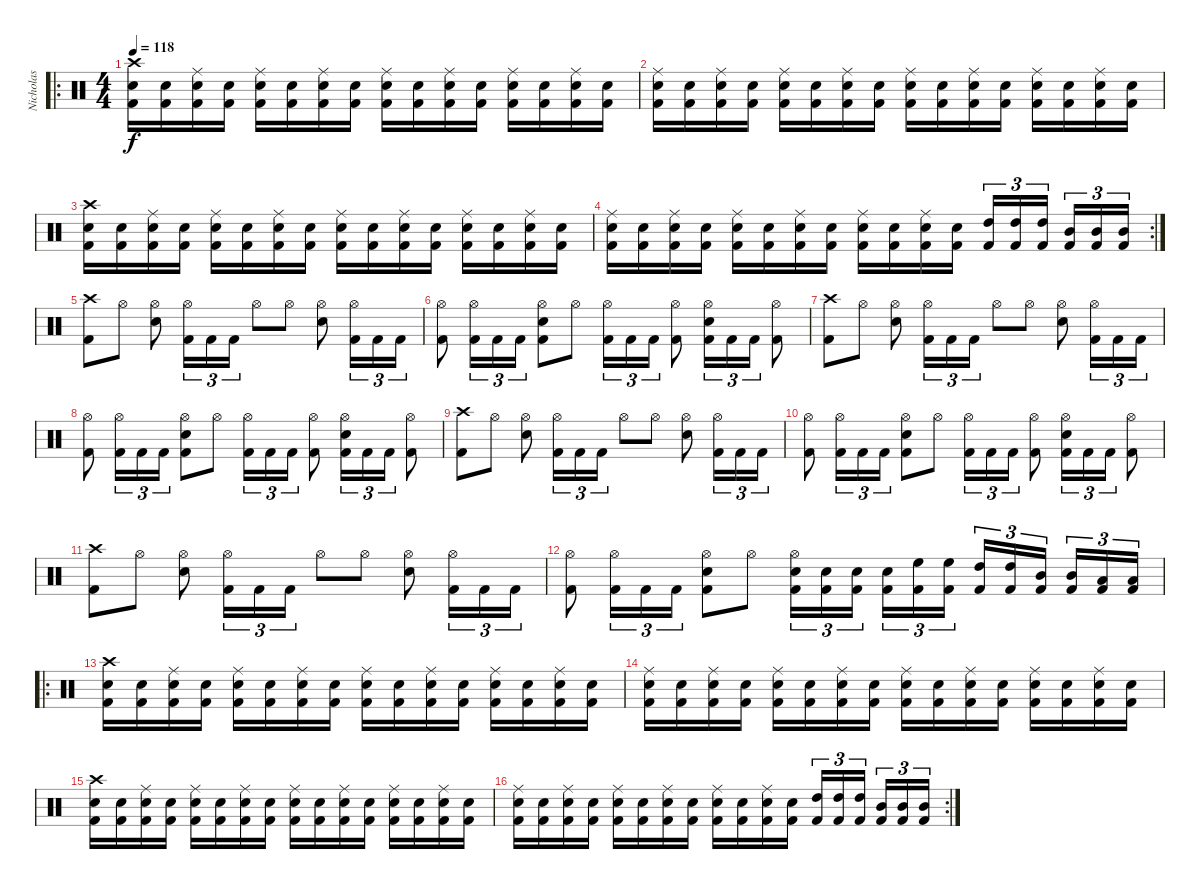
\track ("Nicholas" "Nicholas") {instrument percussion}
\staff {score}
\articulation defaults
\ro
\ts (4 4)
\tempo 118
\clef neutral
\ks c
("Kick (hit) 2" "Snare (hit) 2" "Crash high (hit)").16{dy f} ("Kick (hit) 2" "Snare (hit) 2").16 ("Kick (hit) 2" "Snare (hit) 2" "Ride (middle)").16 ("Kick (hit) 2" "Snare (hit) 2").16 ("Kick (hit) 2" "Snare (hit) 2" "Ride (middle)").16 ("Kick (hit) 2" "Snare (hit) 2").16 ("Kick (hit) 2" "Snare (hit) 2" "Ride (middle)").16 ("Kick (hit) 2" "Snare (hit) 2").16 ("Kick (hit) 2" "Snare (hit) 2" "Ride (middle)").16 ("Kick (hit) 2" "Snare (hit) 2").16 ("Kick (hit) 2" "Snare (hit) 2" "Ride (middle)").16 ("Kick (hit) 2" "Snare (hit) 2").16 ("Kick (hit) 2" "Snare (hit) 2" "Ride (middle)").16 ("Kick (hit) 2" "Snare (hit) 2").16 ("Kick (hit) 2" "Snare (hit) 2" "Ride (middle)").16 ("Kick (hit) 2" "Snare (hit) 2").16 |
("Kick (hit) 2" "Snare (hit) 2" "Ride (middle)").16 ("Kick (hit) 2" "Snare (hit) 2").16 ("Kick (hit) 2" "Snare (hit) 2" "Ride (middle)").16 ("Kick (hit) 2" "Snare (hit) 2").16 ("Kick (hit) 2" "Snare (hit) 2" "Ride (middle)").16 ("Kick (hit) 2" "Snare (hit) 2").16 ("Kick (hit) 2" "Snare (hit) 2" "Ride (middle)").16 ("Kick (hit) 2" "Snare (hit) 2").16 ("Kick (hit) 2" "Snare (hit) 2" "Ride (middle)").16 ("Kick (hit) 2" "Snare (hit) 2").16 ("Kick (hit) 2" "Snare (hit) 2" "Ride (middle)").16 ("Kick (hit) 2" "Snare (hit) 2").16 ("Kick (hit) 2" "Snare (hit) 2" "Ride (middle)").16 ("Kick (hit) 2" "Snare (hit) 2").16 ("Kick (hit) 2" "Snare (hit) 2" "Ride (middle)").16 ("Kick (hit) 2" "Snare (hit) 2").16 |
("Kick (hit) 2" "Snare (hit) 2" "Crash high (hit)").16 ("Kick (hit) 2" "Snare (hit) 2").16 ("Kick (hit) 2" "Snare (hit) 2" "Ride (middle)").16 ("Kick (hit) 2" "Snare (hit) 2").16 ("Kick (hit) 2" "Snare (hit) 2" "Ride (middle)").16 ("Kick (hit) 2" "Snare (hit) 2").16 ("Kick (hit) 2" "Snare (hit) 2" "Ride (middle)").16 ("Kick (hit) 2" "Snare (hit) 2").16 ("Kick (hit) 2" "Snare (hit) 2" "Ride (middle)").16 ("Kick (hit) 2" "Snare (hit) 2").16 ("Kick (hit) 2" "Snare (hit) 2" "Ride (middle)").16 ("Kick (hit) 2" "Snare (hit) 2").16 ("Kick (hit) 2" "Snare (hit) 2" "Ride (middle)").16 ("Kick (hit) 2" "Snare (hit) 2").16 ("Kick (hit) 2" "Snare (hit) 2" "Ride (middle)").16 ("Kick (hit) 2" "Snare (hit) 2").16 |
\rc 2
("Kick (hit) 2" "Snare (hit) 2" "Ride (middle)").16 ("Kick (hit) 2" "Snare (hit) 2").16 ("Kick (hit) 2" "Snare (hit) 2" "Ride (middle)").16 ("Kick (hit) 2" "Snare (hit) 2").16 ("Kick (hit) 2" "Snare (hit) 2" "Ride (middle)").16 ("Kick (hit) 2" "Snare (hit) 2").16 ("Kick (hit) 2" "Snare (hit) 2" "Ride (middle)").16 ("Kick (hit) 2" "Snare (hit) 2").16 ("Kick (hit) 2" "Snare (hit) 2" "Ride (middle)").16 ("Kick (hit) 2" "Snare (hit) 2").16 ("Kick (hit) 2" "Snare (hit) 2" "Ride (middle)").16 ("Kick (hit) 2" "Snare (hit) 2").16 ("Kick (hit) 2" "High Tom (hit)").16{tu (3 2)} ("Kick (hit) 2" "High Tom (hit)").16{tu (3 2)} ("Kick (hit) 2" "High Tom (hit)").16{tu (3 2)} ("Kick (hit) 2" "Mid Tom (hit)").16{tu (3 2)} ("Kick (hit) 2" "Mid Tom (hit)").16{tu (3 2)} ("Kick (hit) 2" "Mid Tom (hit)").16{tu (3 2)} |
("Kick (hit) 2" "Crash high (hit)").8 "Hi-Hat (open)".8 ("Snare (hit) 2" "Hi-Hat (open)").8 ("Kick (hit) 2" "Hi-Hat (open)").16{tu (3 2)} "Kick (hit) 2".16{tu (3 2)} "Kick (hit) 2".16{tu (3 2)} "Hi-Hat (open)".8 "Hi-Hat (open)".8 ("Snare (hit) 2" "Hi-Hat (open)").8 ("Kick (hit) 2" "Hi-Hat (open)").16{tu (3 2)} "Kick (hit) 2".16{tu (3 2)} "Kick (hit) 2".16{tu (3 2)} |
("Kick (hit) 2" "Hi-Hat (open)").8 ("Kick (hit) 2" "Hi-Hat (open)").16{tu (3 2)} "Kick (hit) 2".16{tu (3 2)} "Kick (hit) 2".16{tu (3 2)} ("Kick (hit) 2" "Snare (hit) 2" "Hi-Hat (open)").8 "Hi-Hat (open)".8 ("Kick (hit) 2" "Hi-Hat (open)").16{tu (3 2)} "Kick (hit) 2".16{tu (3 2)} "Kick (hit) 2".16{tu (3 2)} ("Kick (hit) 2" "Hi-Hat (open)").8 ("Kick (hit) 2" "Snare (hit) 2" "Hi-Hat (open)").16{tu (3 2)} "Kick (hit) 2".16{tu (3 2)} "Kick (hit) 2".16{tu (3 2)} ("Kick (hit) 2" "Hi-Hat (open)").8 |
("Kick (hit) 2" "Crash high (hit)").8 "Hi-Hat (open)".8 ("Snare (hit) 2" "Hi-Hat (open)").8 ("Kick (hit) 2" "Hi-Hat (open)").16{tu (3 2)} "Kick (hit) 2".16{tu (3 2)} "Kick (hit) 2".16{tu (3 2)} "Hi-Hat (open)".8 "Hi-Hat (open)".8 ("Snare (hit) 2" "Hi-Hat (open)").8 ("Kick (hit) 2" "Hi-Hat (open)").16{tu (3 2)} "Kick (hit) 2".16{tu (3 2)} "Kick (hit) 2".16{tu (3 2)} |
("Kick (hit) 2" "Hi-Hat (open)").8 ("Kick (hit) 2" "Hi-Hat (open)").16{tu (3 2)} "Kick (hit) 2".16{tu (3 2)} "Kick (hit) 2".16{tu (3 2)} ("Kick (hit) 2" "Snare (hit) 2" "Hi-Hat (open)").8 "Hi-Hat (open)".8 ("Kick (hit) 2" "Hi-Hat (open)").16{tu (3 2)} "Kick (hit) 2".16{tu (3 2)} "Kick (hit) 2".16{tu (3 2)} ("Kick (hit) 2" "Hi-Hat (open)").8 ("Kick (hit) 2" "Snare (hit) 2" "Hi-Hat (open)").16{tu (3 2)} "Kick (hit) 2".16{tu (3 2)} "Kick (hit) 2".16{tu (3 2)} ("Kick (hit) 2" "Hi-Hat (open)").8 |
("Kick (hit) 2" "Crash high (hit)").8 "Hi-Hat (open)".8 ("Snare (hit) 2" "Hi-Hat (open)").8 ("Kick (hit) 2" "Hi-Hat (open)").16{tu (3 2)} "Kick (hit) 2".16{tu (3 2)} "Kick (hit) 2".16{tu (3 2)} "Hi-Hat (open)".8 "Hi-Hat (open)".8 ("Snare (hit) 2" "Hi-Hat (open)").8 ("Kick (hit) 2" "Hi-Hat (open)").16{tu (3 2)} "Kick (hit) 2".16{tu (3 2)} "Kick (hit) 2".16{tu (3 2)} |
("Kick (hit) 2" "Hi-Hat (open)").8 ("Kick (hit) 2" "Hi-Hat (open)").16{tu (3 2)} "Kick (hit) 2".16{tu (3 2)} "Kick (hit) 2".16{tu (3 2)} ("Kick (hit) 2" "Snare (hit) 2" "Hi-Hat (open)").8 "Hi-Hat (open)".8 ("Kick (hit) 2" "Hi-Hat (open)").16{tu (3 2)} "Kick (hit) 2".16{tu (3 2)} "Kick (hit) 2".16{tu (3 2)} ("Kick (hit) 2" "Hi-Hat (open)").8 ("Kick (hit) 2" "Snare (hit) 2" "Hi-Hat (open)").16{tu (3 2)} "Kick (hit) 2".16{tu (3 2)} "Kick (hit) 2".16{tu (3 2)} ("Kick (hit) 2" "Hi-Hat (open)").8 |
("Kick (hit) 2" "Crash high (hit)").8 "Hi-Hat (open)".8 ("Snare (hit) 2" "Hi-Hat (open)").8 ("Kick (hit) 2" "Hi-Hat (open)").16{tu (3 2)} "Kick (hit) 2".16{tu (3 2)} "Kick (hit) 2".16{tu (3 2)} "Hi-Hat (open)".8 "Hi-Hat (open)".8 ("Snare (hit) 2" "Hi-Hat (open)").8 ("Kick (hit) 2" "Hi-Hat (open)").16{tu (3 2)} "Kick (hit) 2".16{tu (3 2)} "Kick (hit) 2".16{tu (3 2)} |
("Kick (hit) 2" "Hi-Hat (open)").8 ("Kick (hit) 2" "Hi-Hat (open)").16{tu (3 2)} "Kick (hit) 2".16{tu (3 2)} "Kick (hit) 2".16{tu (3 2)} ("Kick (hit) 2" "Snare (hit) 2" "Hi-Hat (open)").8 "Hi-Hat (open)".8 ("Kick (hit) 2" "Snare (hit) 2" "Hi-Hat (open)").16{tu (3 2)} ("Kick (hit) 2" "Snare (hit) 2").16{tu (3 2)} ("Kick (hit) 2" "Snare (hit) 2").16{tu (3 2)} ("Kick (hit) 2" "Snare (hit) 2").16{tu (3 2)} ("Kick (hit) 2" "High Floor Tom (hit)").16{tu (3 2)} ("Kick (hit) 2" "High Floor Tom (hit)").16{tu (3 2)} ("Kick (hit) 2" "High Tom (hit)").16{tu (3 2)} ("Kick (hit) 2" "High Tom (hit)").16{tu (3 2)} ("Kick (hit) 2" "Mid Tom (hit)").16{tu (3 2)} ("Kick (hit) 2" "Mid Tom (hit)").16{tu (3 2)} ("Kick (hit) 2" "Low Tom (hit)").16{tu (3 2)} ("Kick (hit) 2" "Low Tom (hit)").16{tu (3 2)} |
\ro
("Kick (hit) 2" "Snare (hit) 2" "Crash high (hit)").16 ("Kick (hit) 2" "Snare (hit) 2").16 ("Kick (hit) 2" "Snare (hit) 2" "Ride (middle)").16 ("Kick (hit) 2" "Snare (hit) 2").16 ("Kick (hit) 2" "Snare (hit) 2" "Ride (middle)").16 ("Kick (hit) 2" "Snare (hit) 2").16 ("Kick (hit) 2" "Snare (hit) 2" "Ride (middle)").16 ("Kick (hit) 2" "Snare (hit) 2").16 ("Kick (hit) 2" "Snare (hit) 2" "Ride (middle)").16 ("Kick (hit) 2" "Snare (hit) 2").16 ("Kick (hit) 2" "Snare (hit) 2" "Ride (middle)").16 ("Kick (hit) 2" "Snare (hit) 2").16 ("Kick (hit) 2" "Snare (hit) 2" "Ride (middle)").16 ("Kick (hit) 2" "Snare (hit) 2").16 ("Kick (hit) 2" "Snare (hit) 2" "Ride (middle)").16 ("Kick (hit) 2" "Snare (hit) 2").16 |
("Kick (hit) 2" "Snare (hit) 2" "Ride (middle)").16 ("Kick (hit) 2" "Snare (hit) 2").16 ("Kick (hit) 2" "Snare (hit) 2" "Ride (middle)").16 ("Kick (hit) 2" "Snare (hit) 2").16 ("Kick (hit) 2" "Snare (hit) 2" "Ride (middle)").16 ("Kick (hit) 2" "Snare (hit) 2").16 ("Kick (hit) 2" "Snare (hit) 2" "Ride (middle)").16 ("Kick (hit) 2" "Snare (hit) 2").16 ("Kick (hit) 2" "Snare (hit) 2" "Ride (middle)").16 ("Kick (hit) 2" "Snare (hit) 2").16 ("Kick (hit) 2" "Snare (hit) 2" "Ride (middle)").16 ("Kick (hit) 2" "Snare (hit) 2").16 ("Kick (hit) 2" "Snare (hit) 2" "Ride (middle)").16 ("Kick (hit) 2" "Snare (hit) 2").16 ("Kick (hit) 2" "Snare (hit) 2" "Ride (middle)").16 ("Kick (hit) 2" "Snare (hit) 2").16 |
("Kick (hit) 2" "Snare (hit) 2" "Crash high (hit)").16 ("Kick (hit) 2" "Snare (hit) 2").16 ("Kick (hit) 2" "Snare (hit) 2" "Ride (middle)").16 ("Kick (hit) 2" "Snare (hit) 2").16 ("Kick (hit) 2" "Snare (hit) 2" "Ride (middle)").16 ("Kick (hit) 2" "Snare (hit) 2").16 ("Kick (hit) 2" "Snare (hit) 2" "Ride (middle)").16 ("Kick (hit) 2" "Snare (hit) 2").16 ("Kick (hit) 2" "Snare (hit) 2" "Ride (middle)").16 ("Kick (hit) 2" "Snare (hit) 2").16 ("Kick (hit) 2" "Snare (hit) 2" "Ride (middle)").16 ("Kick (hit) 2" "Snare (hit) 2").16 ("Kick (hit) 2" "Snare (hit) 2" "Ride (middle)").16 ("Kick (hit) 2" "Snare (hit) 2").16 ("Kick (hit) 2" "Snare (hit) 2" "Ride (middle)").16 ("Kick (hit) 2" "Snare (hit) 2").16 |
\rc 2
("Kick (hit) 2" "Snare (hit) 2" "Ride (middle)").16 ("Kick (hit) 2" "Snare (hit) 2").16 ("Kick (hit) 2" "Snare (hit) 2" "Ride (middle)").16 ("Kick (hit) 2" "Snare (hit) 2").16 ("Kick (hit) 2" "Snare (hit) 2" "Ride (middle)").16 ("Kick (hit) 2" "Snare (hit) 2").16 ("Kick (hit) 2" "Snare (hit) 2" "Ride (middle)").16 ("Kick (hit) 2" "Snare (hit) 2").16 ("Kick (hit) 2" "Snare (hit) 2" "Ride (middle)").16 ("Kick (hit) 2" "Snare (hit) 2").16 ("Kick (hit) 2" "Snare (hit) 2" "Ride (middle)").16 ("Kick (hit) 2" "Snare (hit) 2").16 ("Kick (hit) 2" "High Tom (hit)").16{tu (3 2)} ("Kick (hit) 2" "High Tom (hit)").16{tu (3 2)} ("Kick (hit) 2" "High Tom (hit)").16{tu (3 2)} ("Kick (hit) 2" "Mid Tom (hit)").16{tu (3 2)} ("Kick (hit) 2" "Mid Tom (hit)").16{tu (3 2)} ("Kick (hit) 2" "Mid Tom (hit)").16{tu (3 2)}
